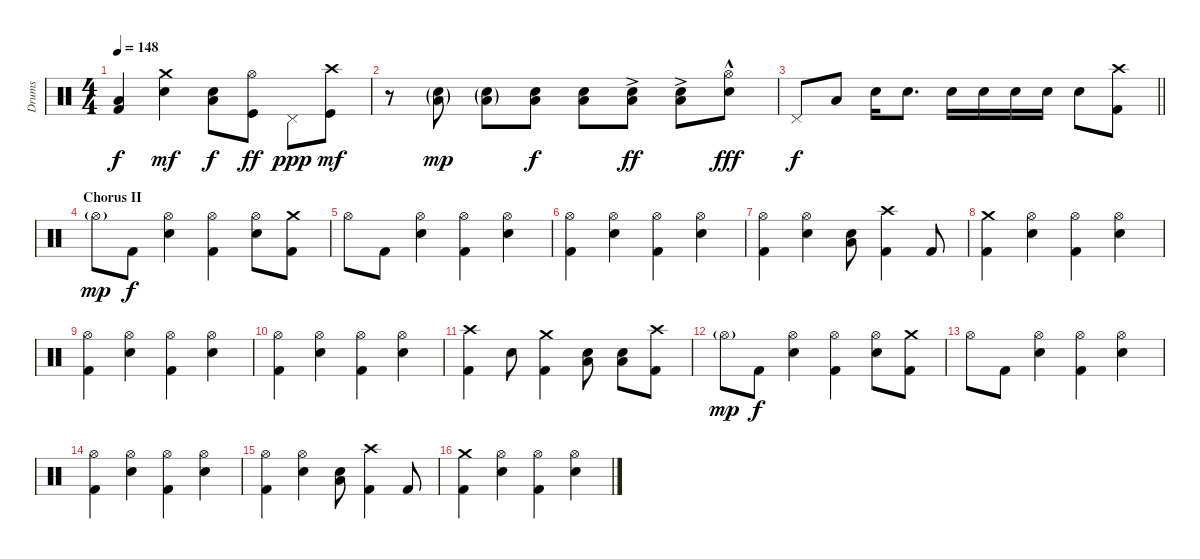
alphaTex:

\track ("Drums" "Drums") {instrument percussion}
\staff {score}
\articulation defaults
\ts (4 4)
\tempo 148
\clef neutral
\ks c
("Low Floor Tom (hit)" "Kick (hit) 2").4{dy f} ("Electric Snare (hit)" "Crash medium (hit)").4{dy mf} ("Electric Snare (hit)" "Low Floor Tom (hit)").8{dy f} ("Kick (hit)" "Hi-Hat (open)").8{dy ff} "Pedal Hi-Hat (hit)".8{dy ppp} ("Kick (hit)" "Crash high (hit)").8{dy mf} |
r.8 ("Low Floor Tom (hit)"{g} "Electric Snare (hit)"{g}).8{dy mp} ("Low Floor Tom (hit)"{g} "Electric Snare (hit)"{g}).8 ("Low Floor Tom (hit)" "Electric Snare (hit)").8{dy f} ("Low Floor Tom (hit)" "Electric Snare (hit)").8 ("Low Floor Tom (hit)"{ac} "Electric Snare (hit)"{ac}).8{dy ff} ("Low Floor Tom (hit)"{ac} "Electric Snare (hit)"{ac}).8 ("Hi-Hat (open)"{hac} "Electric Snare (hit)"{hac}).8{dy fff} |
\barLineRight lightlight "Pedal Hi-Hat (hit)".8{dy f} "Low Tom (hit)".8 "Electric Snare (hit)".16 "Electric Snare (hit)".8{d} "Electric Snare (hit)".16 "Electric Snare (hit)".16 "Electric Snare (hit)".16 "Electric Snare (hit)".16 "Electric Snare (hit)".8
("Crash high (hit)" "Kick (hit) 2").8 |
\section ("" "Chorus II")
"Hi-Hat (open)"{g}.8{dy mp} "Kick (hit) 2".8{dy f} ("Hi-Hat (open)" "Electric Snare (hit)").4 ("Hi-Hat (open)" "Kick (hit) 2").4 ("Hi-Hat (open)" "Electric Snare (hit)").8 ("Crash medium (hit)" "Kick (hit) 2").8 |
"Hi-Hat (open)".8 "Kick (hit) 2".8 ("Hi-Hat (open)" "Electric Snare (hit)").4 ("Hi-Hat (open)" "Kick (hit) 2").4 ("Hi-Hat (open)" "Electric Snare (hit)").4 |
("Hi-Hat (open)" "Kick (hit) 2").4 ("Hi-Hat (open)" "Electric Snare (hit)").4 ("Hi-Hat (open)" "Kick (hit) 2").4 ("Hi-Hat (open)" "Electric Snare (hit)").4 |
("Hi-Hat (open)" "Kick (hit) 2").4 ("Hi-Hat (open)" "Electric Snare (hit)").4 ("Low Tom (hit)" "Electric Snare (hit)").8 ("Crash high (hit)" "Kick (hit) 2").4 "Kick (hit) 2".8 |
("Crash medium (hit)" "Kick (hit) 2").4 ("Hi-Hat (open)" "Electric Snare (hit)").4 ("Hi-Hat (open)" "Kick (hit) 2").4 ("Hi-Hat (open)" "Electric Snare (hit)").4 |
("Hi-Hat (open)" "Kick (hit) 2").4 ("Hi-Hat (open)" "Electric Snare (hit)").4 ("Hi-Hat (open)" "Kick (hit) 2").4 ("Hi-Hat (open)" "Electric Snare (hit)").4 |
("Hi-Hat (open)" "Kick (hit) 2").4 ("Hi-Hat (open)" "Electric Snare (hit)").4 ("Hi-Hat (open)" "Kick (hit) 2").4 ("Hi-Hat (open)" "Electric Snare (hit)").4 |
("Crash high (hit)" "Kick (hit) 2").4 "Electric Snare (hit)".8 ("Crash medium (hit)" "Kick (hit) 2").4 ("Electric Snare (hit)" "Low Floor Tom (hit)").8 ("Electric Snare (hit)" "Low Floor Tom (hit)").8 ("Crash high (hit)" "Kick (hit) 2").8 |
"Hi-Hat (open)"{g}.8{dy mp} "Kick (hit) 2".8{dy f} ("Hi-Hat (open)" "Electric Snare (hit)").4 ("Hi-Hat (open)" "Kick (hit) 2").4 ("Hi-Hat (open)" "Electric Snare (hit)").8 ("Crash medium (hit)" "Kick (hit) 2").8 |
"Hi-Hat (open)".8 "Kick (hit) 2".8 ("Hi-Hat (open)" "Electric Snare (hit)").4 ("Hi-Hat (open)" "Kick (hit) 2").4 ("Hi-Hat (open)" "Electric Snare (hit)").4 |
("Hi-Hat (open)" "Kick (hit) 2").4 ("Hi-Hat (open)" "Electric Snare (hit)").4 ("Hi-Hat (open)" "Kick (hit) 2").4 ("Hi-Hat (open)" "Electric Snare (hit)").4 |
("Hi-Hat (open)" "Kick (hit) 2").4 ("Hi-Hat (open)" "Electric Snare (hit)").4 ("Low Tom (hit)" "Electric Snare (hit)").8 ("Crash high (hit)" "Kick (hit) 2").4 "Kick (hit) 2".8 |
("Crash medium (hit)" "Kick (hit) 2").4 ("Hi-Hat (open)" "Electric Snare (hit)").4 ("Hi-Hat (open)" "Kick (hit) 2").4 ("Hi-Hat (open)" "Electric Snare (hit)").4
